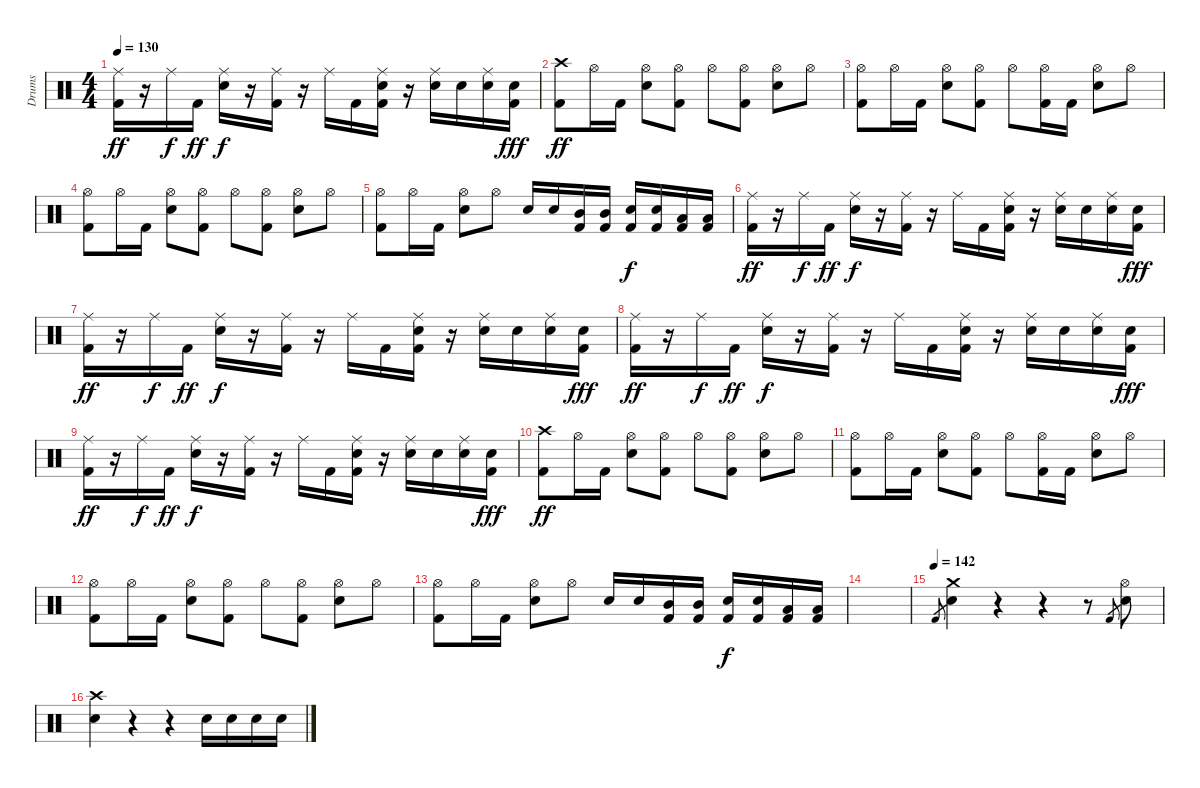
\track ("Drums" "Drums") {instrument percussion}
\staff {score}
\articulation defaults
\ts (4 4)
\tempo 130
\clef neutral
\ks c
("Kick (hit) 2" "Ride (middle)").16{dy ff} r.16 "Ride (middle)".16{dy f} "Kick (hit) 2".16{dy ff} ("Electric Snare (hit)" "Ride (middle)").16{dy f} r.16 ("Kick (hit) 2" "Ride (middle)").16 r.16 "Ride (middle)".16 "Kick (hit) 2".16 ("Electric Snare (hit)" "Kick (hit) 2" "Ride (middle)").16 r.16 ("Electric Snare (hit)" "Ride (middle)").16 "Electric Snare (hit)".16 ("Electric Snare (hit)" "Ride (middle)").16 ("Electric Snare (hit)" "Kick (hit) 2").16{dy fff} |
("Kick (hit) 2" "Crash high (hit)").8{dy ff} "Hi-Hat (open)".16 "Kick (hit) 2".16 ("Hi-Hat (open)" "Electric Snare (hit)").8 ("Kick (hit) 2" "Hi-Hat (open)").8 "Hi-Hat (open)".8 ("Kick (hit) 2" "Hi-Hat (open)").8 ("Hi-Hat (open)" "Electric Snare (hit)").8 "Hi-Hat (open)".8 |
("Kick (hit) 2" "Hi-Hat (open)").8 "Hi-Hat (open)".16 "Kick (hit) 2".16 ("Hi-Hat (open)" "Electric Snare (hit)").8 ("Kick (hit) 2" "Hi-Hat (open)").8 "Hi-Hat (open)".8 ("Kick (hit) 2" "Hi-Hat (open)").16 "Kick (hit) 2".16 ("Hi-Hat (open)" "Electric Snare (hit)").8 "Hi-Hat (open)".8 |
("Kick (hit) 2" "Hi-Hat (open)").8 "Hi-Hat (open)".16 "Kick (hit) 2".16 ("Hi-Hat (open)" "Electric Snare (hit)").8 ("Kick (hit) 2" "Hi-Hat (open)").8 "Hi-Hat (open)".8 ("Kick (hit) 2" "Hi-Hat (open)").8 ("Hi-Hat (open)" "Electric Snare (hit)").8 "Hi-Hat (open)".8 |
("Kick (hit) 2" "Hi-Hat (open)").8 "Hi-Hat (open)".16 "Kick (hit) 2".16 ("Hi-Hat (open)" "Electric Snare (hit)").8 "Hi-Hat (open)".8 "Electric Snare (hit)".16 "Electric Snare (hit)".16 ("Kick (hit) 2" "Mid Tom (hit)").16 ("Kick (hit) 2" "Mid Tom (hit)").16 ("Kick (hit) 2" "Electric Snare (hit)").16{dy f} ("Kick (hit) 2" "Electric Snare (hit)").16 ("Kick (hit) 2" "Low Tom (hit)").16 ("Kick (hit) 2" "Low Tom (hit)").16 |
("Kick (hit) 2" "Ride (middle)").16{dy ff} r.16 "Ride (middle)".16{dy f} "Kick (hit) 2".16{dy ff} ("Electric Snare (hit)" "Ride (middle)").16{dy f} r.16 ("Kick (hit) 2" "Ride (middle)").16 r.16 "Ride (middle)".16 "Kick (hit) 2".16 ("Electric Snare (hit)" "Kick (hit) 2" "Ride (middle)").16 r.16 ("Electric Snare (hit)" "Ride (middle)").16 "Electric Snare (hit)".16 ("Electric Snare (hit)" "Ride (middle)").16 ("Electric Snare (hit)" "Kick (hit) 2").16{dy fff} |
("Kick (hit) 2" "Ride (middle)").16{dy ff} r.16 "Ride (middle)".16{dy f} "Kick (hit) 2".16{dy ff} ("Electric Snare (hit)" "Ride (middle)").16{dy f} r.16 ("Kick (hit) 2" "Ride (middle)").16 r.16 "Ride (middle)".16 "Kick (hit) 2".16 ("Electric Snare (hit)" "Kick (hit) 2" "Ride (middle)").16 r.16 ("Electric Snare (hit)" "Ride (middle)").16 "Electric Snare (hit)".16 ("Electric Snare (hit)" "Ride (middle)").16 ("Electric Snare (hit)" "Kick (hit) 2").16{dy fff} |
("Kick (hit) 2" "Ride (middle)").16{dy ff} r.16 "Ride (middle)".16{dy f} "Kick (hit) 2".16{dy ff} ("Electric Snare (hit)" "Ride (middle)").16{dy f} r.16 ("Kick (hit) 2" "Ride (middle)").16 r.16 "Ride (middle)".16 "Kick (hit) 2".16 ("Electric Snare (hit)" "Kick (hit) 2" "Ride (middle)").16 r.16 ("Electric Snare (hit)" "Ride (middle)").16 "Electric Snare (hit)".16 ("Electric Snare (hit)" "Ride (middle)").16 ("Electric Snare (hit)" "Kick (hit) 2").16{dy fff} |
("Kick (hit) 2" "Ride (middle)").16{dy ff} r.16 "Ride (middle)".16{dy f} "Kick (hit) 2".16{dy ff} ("Electric Snare (hit)" "Ride (middle)").16{dy f} r.16 ("Kick (hit) 2" "Ride (middle)").16 r.16 "Ride (middle)".16 "Kick (hit) 2".16 ("Electric Snare (hit)" "Kick (hit) 2" "Ride (middle)").16 r.16 ("Electric Snare (hit)" "Ride (middle)").16 "Electric Snare (hit)".16 ("Electric Snare (hit)" "Ride (middle)").16 ("Electric Snare (hit)" "Kick (hit) 2").16{dy fff} |
("Kick (hit) 2" "Crash high (hit)").8{dy ff} "Hi-Hat (open)".16 "Kick (hit) 2".16 ("Hi-Hat (open)" "Electric Snare (hit)").8 ("Kick (hit) 2" "Hi-Hat (open)").8 "Hi-Hat (open)".8 ("Kick (hit) 2" "Hi-Hat (open)").8 ("Hi-Hat (open)" "Electric Snare (hit)").8 "Hi-Hat (open)".8 |
("Kick (hit) 2" "Hi-Hat (open)").8 "Hi-Hat (open)".16 "Kick (hit) 2".16 ("Hi-Hat (open)" "Electric Snare (hit)").8 ("Kick (hit) 2" "Hi-Hat (open)").8 "Hi-Hat (open)".8 ("Kick (hit) 2" "Hi-Hat (open)").16 "Kick (hit) 2".16 ("Hi-Hat (open)" "Electric Snare (hit)").8 "Hi-Hat (open)".8 |
("Kick (hit) 2" "Hi-Hat (open)").8 "Hi-Hat (open)".16 "Kick (hit) 2".16 ("Hi-Hat (open)" "Electric Snare (hit)").8 ("Kick (hit) 2" "Hi-Hat (open)").8 "Hi-Hat (open)".8 ("Kick (hit) 2" "Hi-Hat (open)").8 ("Hi-Hat (open)" "Electric Snare (hit)").8 "Hi-Hat (open)".8 |
("Kick (hit) 2" "Hi-Hat (open)").8 "Hi-Hat (open)".16 "Kick (hit) 2".16 ("Hi-Hat (open)" "Electric Snare (hit)").8 "Hi-Hat (open)".8 "Electric Snare (hit)".16 "Electric Snare (hit)".16 ("Kick (hit) 2" "Mid Tom (hit)").16 ("Kick (hit) 2" "Mid Tom (hit)").16 ("Kick (hit) 2" "Electric Snare (hit)").16{dy f} ("Kick (hit) 2" "Electric Snare (hit)").16 ("Kick (hit) 2" "Low Tom (hit)").16 ("Kick (hit) 2" "Low Tom (hit)").16 |
|
\tempo (142)
"Kick (hit) 2".8{gr} ("Crash medium (hit)" "Snare (hit) 2").4 r.4 r.4 r.8 "Kick (hit) 2".8{gr} ("Hi-Hat (open)" "Snare (hit) 2").8 |
("Crash high (hit)" "Electric Snare (hit)").4 r.4 r.4 "Electric Snare (hit)".16 "Electric Snare (hit)".16 "Electric Snare (hit)".16 "Electric Snare (hit)".16
